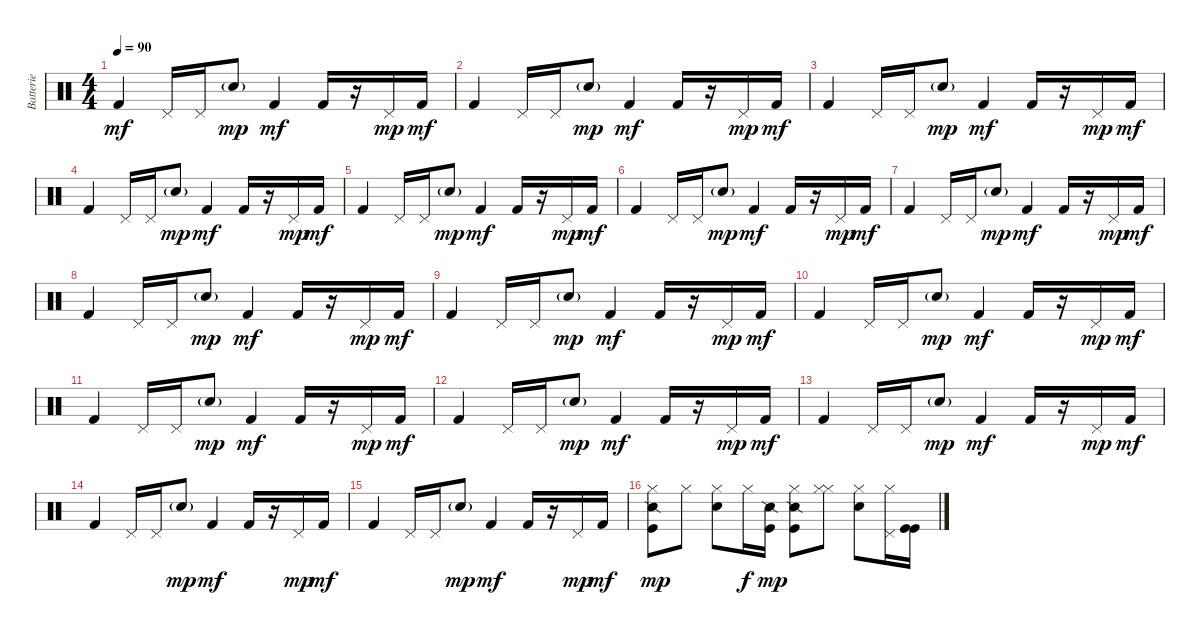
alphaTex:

\track ("Batterie" "Batterie") {instrument percussion}
\staff {score}
\articulation defaults
\ts (4 4)
\tempo 90
\clef neutral
\ks c "Kick (hit) 2".4{dy mf} "Pedal Hi-Hat (hit)".16 "Pedal Hi-Hat (hit)".16 "Hand Clap (hit)"{g}.8{dy mp} "Kick (hit) 2".4{dy mf} "Kick (hit) 2".16
r.16 "Pedal Hi-Hat (hit)".16{dy mp} "Kick (hit) 2".16{dy mf} |
"Kick (hit) 2".4 "Pedal Hi-Hat (hit)".16 "Pedal Hi-Hat (hit)".16 "Hand Clap (hit)"{g}.8{dy mp} "Kick (hit) 2".4{dy mf} "Kick (hit) 2".16 r.16 "Pedal Hi-Hat (hit)".16{dy mp} "Kick (hit) 2".16{dy mf} |
"Kick (hit) 2".4 "Pedal Hi-Hat (hit)".16 "Pedal Hi-Hat (hit)".16 "Hand Clap (hit)"{g}.8{dy mp} "Kick (hit) 2".4{dy mf} "Kick (hit) 2".16 r.16 "Pedal Hi-Hat (hit)".16{dy mp} "Kick (hit) 2".16{dy mf} |
"Kick (hit) 2".4 "Pedal Hi-Hat (hit)".16 "Pedal Hi-Hat (hit)".16 "Hand Clap (hit)"{g}.8{dy mp} "Kick (hit) 2".4{dy mf} "Kick (hit) 2".16 r.16 "Pedal Hi-Hat (hit)".16{dy mp} "Kick (hit) 2".16{dy mf} |
"Kick (hit) 2".4 "Pedal Hi-Hat (hit)".16 "Pedal Hi-Hat (hit)".16 "Hand Clap (hit)"{g}.8{dy mp} "Kick (hit) 2".4{dy mf} "Kick (hit) 2".16 r.16 "Pedal Hi-Hat (hit)".16{dy mp} "Kick (hit) 2".16{dy mf} |
"Kick (hit) 2".4 "Pedal Hi-Hat (hit)".16 "Pedal Hi-Hat (hit)".16 "Hand Clap (hit)"{g}.8{dy mp} "Kick (hit) 2".4{dy mf} "Kick (hit) 2".16 r.16 "Pedal Hi-Hat (hit)".16{dy mp} "Kick (hit) 2".16{dy mf} |
"Kick (hit) 2".4 "Pedal Hi-Hat (hit)".16 "Pedal Hi-Hat (hit)".16 "Hand Clap (hit)"{g}.8{dy mp} "Kick (hit) 2".4{dy mf} "Kick (hit) 2".16 r.16 "Pedal Hi-Hat (hit)".16{dy mp} "Kick (hit) 2".16{dy mf} |
"Kick (hit) 2".4 "Pedal Hi-Hat (hit)".16 "Pedal Hi-Hat (hit)".16 "Hand Clap (hit)"{g}.8{dy mp} "Kick (hit) 2".4{dy mf} "Kick (hit) 2".16 r.16 "Pedal Hi-Hat (hit)".16{dy mp} "Kick (hit) 2".16{dy mf} |
"Kick (hit) 2".4 "Pedal Hi-Hat (hit)".16 "Pedal Hi-Hat (hit)".16 "Hand Clap (hit)"{g}.8{dy mp} "Kick (hit) 2".4{dy mf} "Kick (hit) 2".16 r.16 "Pedal Hi-Hat (hit)".16{dy mp} "Kick (hit) 2".16{dy mf} |
"Kick (hit) 2".4 "Pedal Hi-Hat (hit)".16 "Pedal Hi-Hat (hit)".16 "Hand Clap (hit)"{g}.8{dy mp} "Kick (hit) 2".4{dy mf} "Kick (hit) 2".16 r.16 "Pedal Hi-Hat (hit)".16{dy mp} "Kick (hit) 2".16{dy mf} |
"Kick (hit) 2".4 "Pedal Hi-Hat (hit)".16 "Pedal Hi-Hat (hit)".16 "Hand Clap (hit)"{g}.8{dy mp} "Kick (hit) 2".4{dy mf} "Kick (hit) 2".16 r.16 "Pedal Hi-Hat (hit)".16{dy mp} "Kick (hit) 2".16{dy mf} |
"Kick (hit) 2".4 "Pedal Hi-Hat (hit)".16 "Pedal Hi-Hat (hit)".16 "Hand Clap (hit)"{g}.8{dy mp} "Kick (hit) 2".4{dy mf} "Kick (hit) 2".16 r.16 "Pedal Hi-Hat (hit)".16{dy mp} "Kick (hit) 2".16{dy mf} |
"Kick (hit) 2".4 "Pedal Hi-Hat (hit)".16 "Pedal Hi-Hat (hit)".16 "Hand Clap (hit)"{g}.8{dy mp} "Kick (hit) 2".4{dy mf} "Kick (hit) 2".16 r.16 "Pedal Hi-Hat (hit)".16{dy mp} "Kick (hit) 2".16{dy mf} |
"Kick (hit) 2".4 "Pedal Hi-Hat (hit)".16 "Pedal Hi-Hat (hit)".16 "Hand Clap (hit)"{g}.8{dy mp} "Kick (hit) 2".4{dy mf} "Kick (hit) 2".16 r.16 "Pedal Hi-Hat (hit)".16{dy mp} "Kick (hit) 2".16{dy mf} |
"Kick (hit) 2".4 "Pedal Hi-Hat (hit)".16 "Pedal Hi-Hat (hit)".16 "Hand Clap (hit)"{g}.8{dy mp} "Kick (hit) 2".4{dy mf} "Kick (hit) 2".16 r.16 "Pedal Hi-Hat (hit)".16{dy mp} "Kick (hit) 2".16{dy mf} |
("Hi-Hat (closed)" "Snare (side stick) 2" "Kick (hit)").8{dy mp} "Hi-Hat (closed)".8 ("Hi-Hat (closed)" "Electric Snare (hit)").8 "Hi-Hat (closed)".16{dy f} ("Snare (side stick) 2" "Kick (hit)").16{dy mp} ("Hi-Hat (closed)" "Snare (side stick) 2" "Kick (hit)").8 ("Hi-Hat (closed)" "Hi-Hat (closed)").8 ("Hi-Hat (closed)" "Electric Snare (hit)").8 ("Hi-Hat (closed)" "Pedal Hi-Hat (hit)").16 ("Kick (hit)" "Kick (hit)").16
